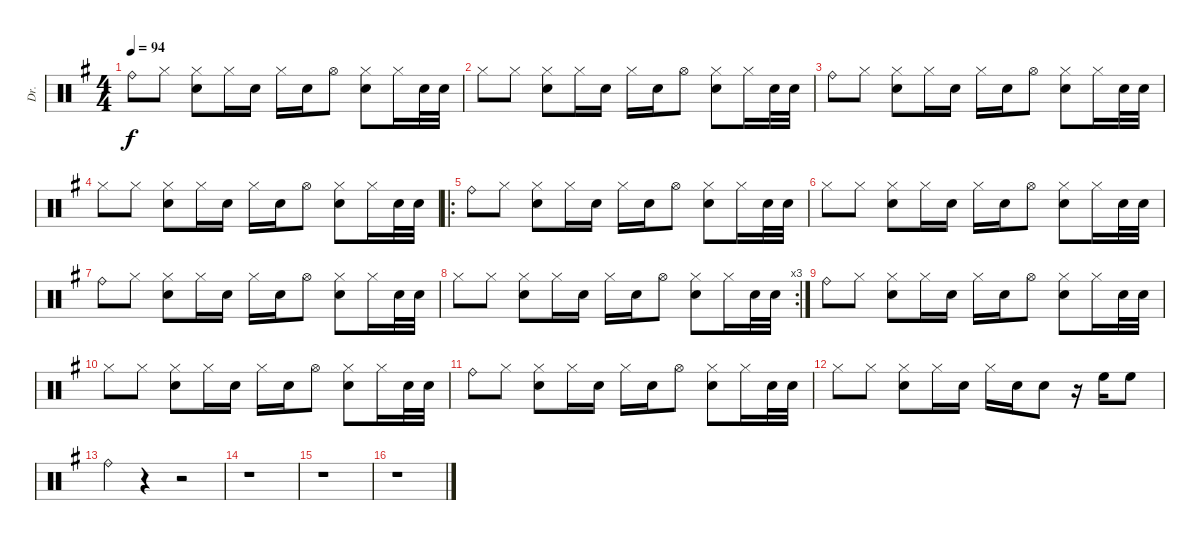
\track ("Dr." "Dr.") {instrument percussion}
\staff {score}
\articulation defaults
\ts (4 4)
\tempo 94
\clef neutral
\ks g "Ride (bell)".8{dy f} "Hi-Hat (closed)".8
("Hi-Hat (closed)" "Electric Snare (hit)").8 "Hi-Hat (closed)".16 "Electric Snare (hit)".16 "Hi-Hat (closed)".16 "Electric Snare (hit)".16 "Hi-Hat (open)".8 ("Hi-Hat (closed)" "Electric Snare (hit)").8 "Hi-Hat (closed)".16 "Electric Snare (hit)".32 "Electric Snare (hit)".32 |
"Hi-Hat (closed)".8 "Hi-Hat (closed)".8 ("Hi-Hat (closed)" "Electric Snare (hit)").8 "Hi-Hat (closed)".16 "Electric Snare (hit)".16 "Hi-Hat (closed)".16 "Electric Snare (hit)".16 "Hi-Hat (open)".8 ("Hi-Hat (closed)" "Electric Snare (hit)").8 "Hi-Hat (closed)".16 "Electric Snare (hit)".32 "Electric Snare (hit)".32 |
"Ride (bell)".8 "Hi-Hat (closed)".8 ("Hi-Hat (closed)" "Electric Snare (hit)").8 "Hi-Hat (closed)".16 "Electric Snare (hit)".16 "Hi-Hat (closed)".16 "Electric Snare (hit)".16 "Hi-Hat (open)".8 ("Hi-Hat (closed)" "Electric Snare (hit)").8 "Hi-Hat (closed)".16 "Electric Snare (hit)".32 "Electric Snare (hit)".32 |
"Hi-Hat (closed)".8 "Hi-Hat (closed)".8 ("Hi-Hat (closed)" "Electric Snare (hit)").8 "Hi-Hat (closed)".16 "Electric Snare (hit)".16 "Hi-Hat (closed)".16 "Electric Snare (hit)".16 "Hi-Hat (open)".8 ("Hi-Hat (closed)" "Electric Snare (hit)").8 "Hi-Hat (closed)".16 "Electric Snare (hit)".32 "Electric Snare (hit)".32 |
\ro "Ride (bell)".8 "Hi-Hat (closed)".8
("Hi-Hat (closed)" "Electric Snare (hit)").8 "Hi-Hat (closed)".16 "Electric Snare (hit)".16 "Hi-Hat (closed)".16 "Electric Snare (hit)".16 "Hi-Hat (open)".8 ("Hi-Hat (closed)" "Electric Snare (hit)").8 "Hi-Hat (closed)".16 "Electric Snare (hit)".32 "Electric Snare (hit)".32 |
"Hi-Hat (closed)".8 "Hi-Hat (closed)".8 ("Hi-Hat (closed)" "Electric Snare (hit)").8 "Hi-Hat (closed)".16 "Electric Snare (hit)".16 "Hi-Hat (closed)".16 "Electric Snare (hit)".16 "Hi-Hat (open)".8 ("Hi-Hat (closed)" "Electric Snare (hit)").8 "Hi-Hat (closed)".16 "Electric Snare (hit)".32 "Electric Snare (hit)".32 |
"Ride (bell)".8 "Hi-Hat (closed)".8 ("Hi-Hat (closed)" "Electric Snare (hit)").8 "Hi-Hat (closed)".16 "Electric Snare (hit)".16 "Hi-Hat (closed)".16 "Electric Snare (hit)".16 "Hi-Hat (open)".8 ("Hi-Hat (closed)" "Electric Snare (hit)").8 "Hi-Hat (closed)".16 "Electric Snare (hit)".32 "Electric Snare (hit)".32 |
\rc 3 "Hi-Hat (closed)".8 "Hi-Hat (closed)".8
("Hi-Hat (closed)" "Electric Snare (hit)").8 "Hi-Hat (closed)".16 "Electric Snare (hit)".16 "Hi-Hat (closed)".16 "Electric Snare (hit)".16 "Hi-Hat (open)".8 ("Hi-Hat (closed)" "Electric Snare (hit)").8 "Hi-Hat (closed)".16 "Electric Snare (hit)".32 "Electric Snare (hit)".32 |
"Ride (bell)".8 "Hi-Hat (closed)".8 ("Hi-Hat (closed)" "Electric Snare (hit)").8 "Hi-Hat (closed)".16 "Electric Snare (hit)".16 "Hi-Hat (closed)".16 "Electric Snare (hit)".16 "Hi-Hat (open)".8 ("Hi-Hat (closed)" "Electric Snare (hit)").8 "Hi-Hat (closed)".16 "Electric Snare (hit)".32 "Electric Snare (hit)".32 |
"Hi-Hat (closed)".8 "Hi-Hat (closed)".8 ("Hi-Hat (closed)" "Electric Snare (hit)").8 "Hi-Hat (closed)".16 "Electric Snare (hit)".16 "Hi-Hat (closed)".16 "Electric Snare (hit)".16 "Hi-Hat (open)".8 ("Hi-Hat (closed)" "Electric Snare (hit)").8 "Hi-Hat (closed)".16 "Electric Snare (hit)".32 "Electric Snare (hit)".32 |
"Ride (bell)".8 "Hi-Hat (closed)".8 ("Hi-Hat (closed)" "Electric Snare (hit)").8 "Hi-Hat (closed)".16 "Electric Snare (hit)".16 "Hi-Hat (closed)".16 "Electric Snare (hit)".16 "Hi-Hat (open)".8 ("Hi-Hat (closed)" "Electric Snare (hit)").8 "Hi-Hat (closed)".16 "Electric Snare (hit)".32 "Electric Snare (hit)".32 |
"Hi-Hat (closed)".8 "Hi-Hat (closed)".8 ("Hi-Hat (closed)" "Electric Snare (hit)").8 "Hi-Hat (closed)".16 "Electric Snare (hit)".16 "Hi-Hat (closed)".16 "Electric Snare (hit)".16 "Electric Snare (hit)".8 r.16 "High Floor Tom (hit)".16 "High Floor Tom (hit)".8 |
"Ride (bell)".4 r.4 r.2 |
r.1 |
r.1 |
r.1
